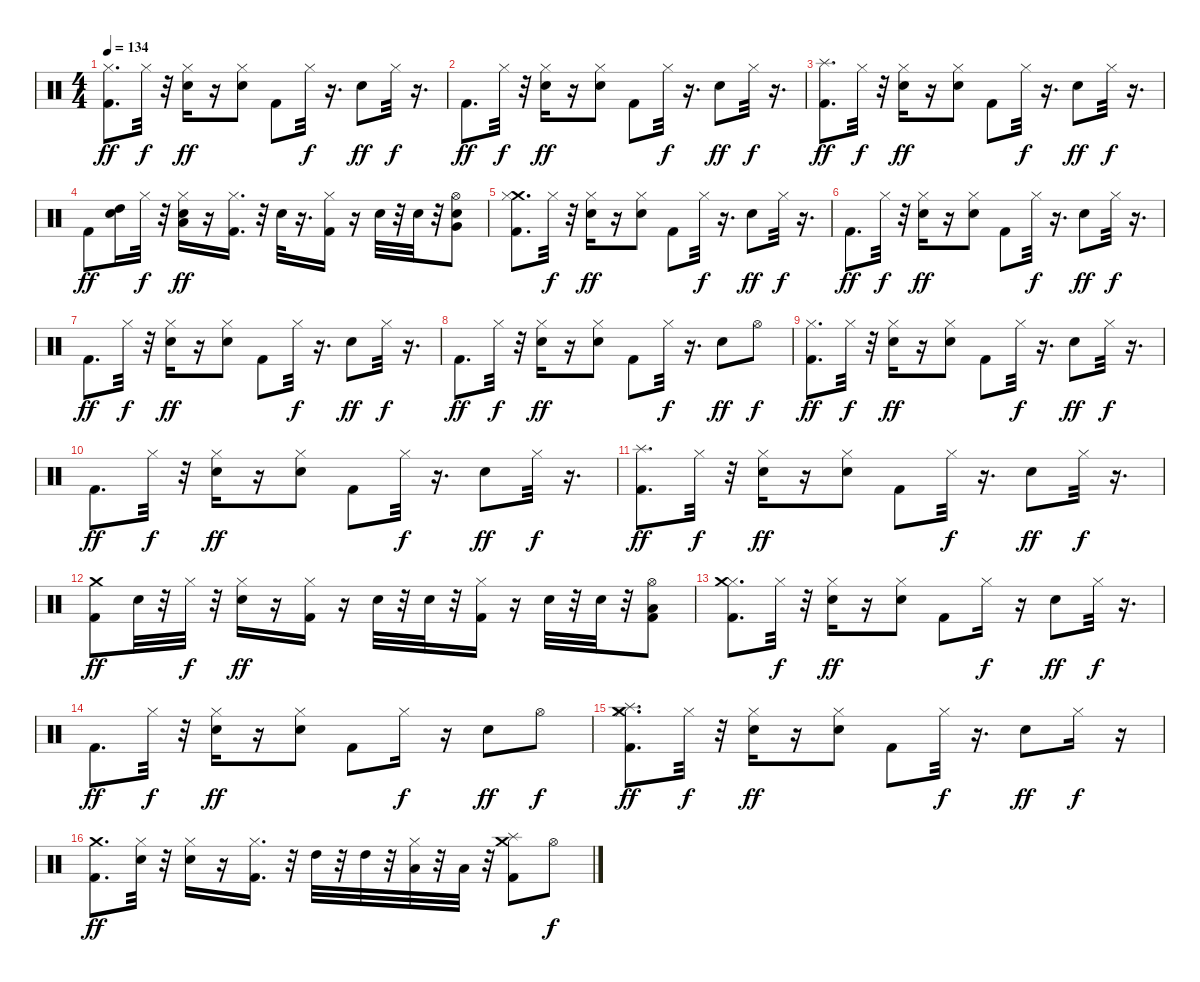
\track "" {instrument percussion}
\staff {score}
\articulation defaults
\ts (4 4)
\tempo 134
\clef neutral
\ks c
("Kick (hit) 2" "Hi-Hat (closed)").8{d dy ff} "Hi-Hat (closed)".32{dy f} r.32 ("Snare (hit) 2" "Hi-Hat (closed)").16{dy ff} r.16 ("Snare (hit) 2" "Hi-Hat (closed)").8 "Kick (hit) 2".8 "Hi-Hat (closed)".32{dy f} r.16{d} "Snare (hit) 2".8{dy ff} "Hi-Hat (closed)".32{dy f} r.16{d} |
"Kick (hit) 2".8{d dy ff} "Hi-Hat (closed)".32{dy f} r.32 ("Snare (hit) 2" "Hi-Hat (closed)").16{dy ff} r.16 ("Snare (hit) 2" "Hi-Hat (closed)").8 "Kick (hit) 2".8 "Hi-Hat (closed)".32{dy f} r.16{d} "Snare (hit) 2".8{dy ff} "Hi-Hat (closed)".32{dy f} r.16{d} |
("Splash (hit)" "Kick (hit) 2").8{d dy ff} "Hi-Hat (closed)".32{dy f} r.32 ("Hi-Hat (closed)" "Snare (hit) 2").16{dy ff} r.16 ("Snare (hit) 2" "Hi-Hat (closed)").8 "Kick (hit) 2".8 "Hi-Hat (closed)".32{dy f} r.16{d} "Snare (hit) 2".8{dy ff} "Hi-Hat (closed)".32{dy f} r.16{d} |
"Kick (hit) 2".8{dy ff} ("Snare (hit) 2" "High Tom (hit)").16 "Hi-Hat (closed)".32{dy f} r.32 ("Hi-Hat (closed)" "Low Tom (hit)" "Snare (hit) 2").16{dy ff} r.16 ("Kick (hit) 2" "Hi-Hat (closed)").16{d} r.32 "Snare (hit) 2".32 r.16{d} ("Kick (hit) 2" "Hi-Hat (closed)").16 r.16 "Snare (hit) 2".32 r.32 "Snare (hit) 2".32 r.32 ("Snare (hit) 2" "Very Low Tom (hit)" "Hi-Hat (open)").8 |
("Crash medium (hit)" "Kick (hit) 2" "Hi-Hat (closed)").8{d} "Hi-Hat (closed)".32{dy f} r.32 ("Snare (hit) 2" "Hi-Hat (closed)").16{dy ff} r.16 ("Snare (hit) 2" "Hi-Hat (closed)").8 "Kick (hit) 2".8 "Hi-Hat (closed)".32{dy f} r.16{d} "Snare (hit) 2".8{dy ff} "Hi-Hat (closed)".32{dy f} r.16{d} |
"Kick (hit) 2".8{d dy ff} "Hi-Hat (closed)".32{dy f} r.32 ("Hi-Hat (closed)" "Snare (hit) 2").16{dy ff} r.16 ("Snare (hit) 2" "Hi-Hat (closed)").8 "Kick (hit) 2".8 "Hi-Hat (closed)".32{dy f} r.16{d} "Snare (hit) 2".8{dy ff} "Hi-Hat (closed)".32{dy f} r.16{d} |
"Kick (hit) 2".8{d dy ff} "Hi-Hat (closed)".32{dy f} r.32 ("Hi-Hat (closed)" "Snare (hit) 2").16{dy ff} r.16 ("Hi-Hat (closed)" "Snare (hit) 2").8 "Kick (hit) 2".8 "Hi-Hat (closed)".32{dy f} r.16{d} "Snare (hit) 2".8{dy ff} "Hi-Hat (closed)".32{dy f} r.16{d} |
"Kick (hit) 2".8{d dy ff} "Hi-Hat (closed)".32{dy f} r.32 ("Hi-Hat (closed)" "Snare (hit) 2").16{dy ff} r.16 ("Hi-Hat (closed)" "Snare (hit) 2").8 "Kick (hit) 2".8 "Hi-Hat (closed)".32{dy f} r.16{d} "Snare (hit) 2".8{dy ff} "Hi-Hat (open)".8{dy f} |
("Kick (hit) 2" "Hi-Hat (closed)").8{d dy ff} "Hi-Hat (closed)".32{dy f} r.32 ("Hi-Hat (closed)" "Snare (hit) 2").16{dy ff} r.16 ("Snare (hit) 2" "Hi-Hat (closed)").8 "Kick (hit) 2".8 "Hi-Hat (closed)".32{dy f} r.16{d} "Snare (hit) 2".8{dy ff} "Hi-Hat (closed)".32{dy f} r.16{d} |
"Kick (hit) 2".8{d dy ff} "Hi-Hat (closed)".32{dy f} r.32 ("Snare (hit) 2" "Hi-Hat (closed)").16{dy ff} r.16 ("Snare (hit) 2" "Hi-Hat (closed)").8 "Kick (hit) 2".8 "Hi-Hat (closed)".32{dy f} r.16{d} "Snare (hit) 2".8{dy ff} "Hi-Hat (closed)".32{dy f} r.16{d} |
("Splash (hit)" "Kick (hit) 2").8{d dy ff} "Hi-Hat (closed)".32{dy f} r.32 ("Hi-Hat (closed)" "Snare (hit) 2").16{dy ff} r.16 ("Hi-Hat (closed)" "Snare (hit) 2").8 "Kick (hit) 2".8 "Hi-Hat (closed)".32{dy f} r.16{d} "Snare (hit) 2".8{dy ff} "Hi-Hat (closed)".32{dy f} r.16{d} |
("Kick (hit) 2" "Crash medium (hit)").8{dy ff} "Snare (hit) 2".32 r.32 "Hi-Hat (closed)".32{dy f} r.32 ("Hi-Hat (closed)" "Snare (hit) 2").16{dy ff} r.16 ("Kick (hit) 2" "Hi-Hat (closed)").16 r.16 "Snare (hit) 2".32 r.32 "Snare (hit) 2".32 r.32 ("Kick (hit) 2" "Hi-Hat (closed)").16 r.16 "Snare (hit) 2".32 r.32 "Snare (hit) 2".32 r.32 ("Hi-Hat (open)" "Low Tom (hit)" "Kick (hit) 2").8 |
("Hi-Hat (closed)" "Kick (hit) 2" "Crash medium (hit)").8{d} "Hi-Hat (closed)".32{dy f} r.32 ("Hi-Hat (closed)" "Snare (hit) 2").16{dy ff} r.16 ("Hi-Hat (closed)" "Snare (hit) 2").8 "Kick (hit) 2".8 "Hi-Hat (closed)".16{dy f} r.16 "Snare (hit) 2".8{dy ff} "Hi-Hat (closed)".32{dy f} r.16{d} |
"Kick (hit) 2".8{d dy ff} "Hi-Hat (closed)".32{dy f} r.32 ("Snare (hit) 2" "Hi-Hat (closed)").16{dy ff} r.16 ("Hi-Hat (closed)" "Snare (hit) 2").8 "Kick (hit) 2".8 "Hi-Hat (closed)".16{dy f} r.16 "Snare (hit) 2".8{dy ff} "Hi-Hat (open)".8{dy f} |
("Hi-Hat (closed)" "Splash (hit)" "Crash medium (hit)" "Kick (hit) 2").8{d dy ff} "Hi-Hat (closed)".32{dy f} r.32 ("Hi-Hat (closed)" "Snare (hit) 2").16{dy ff} r.16 ("Hi-Hat (closed)" "Snare (hit) 2").8 "Kick (hit) 2".8 "Hi-Hat (closed)".32{dy f} r.16{d} "Snare (hit) 2".8{dy ff} "Hi-Hat (closed)".16{dy f} r.16 |
("Crash medium (hit)" "Kick (hit) 2").8{d dy ff} ("Hi-Hat (closed)" "Snare (hit) 2").32 r.32 ("Hi-Hat (closed)" "Snare (hit) 2").16 r.16 ("Kick (hit) 2" "Hi-Hat (closed)").16{d} r.32 "High Tom (hit)".32 r.32 "High Tom (hit)".32 r.32 ("Hi-Hat (closed)" "Low Tom (hit)").32 r.32 "Low Tom (hit)".32 r.32 ("Crash medium (hit)" "Splash (hit)" "Kick (hit) 2").8 "Hi-Hat (open)".8{dy f}
